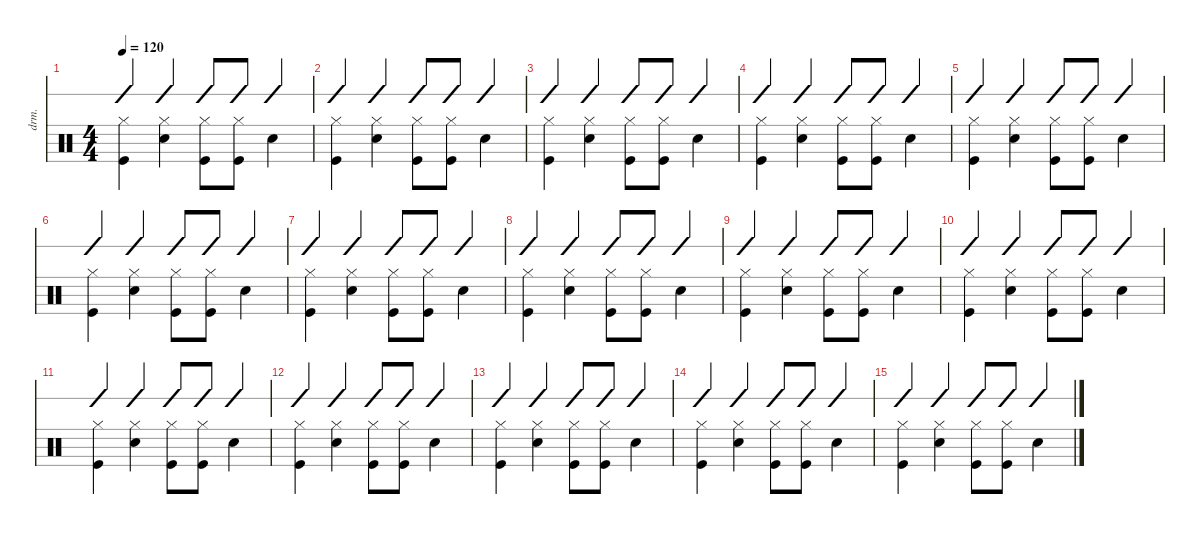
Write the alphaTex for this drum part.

\defaultSystemsLayout 4
\hideDynamics
\bracketExtendMode nobrackets
\otherSystemsTrackNameOrientation horizontal
\track ("Drumkit" "drm.") {instrument percussion}
\staff {score slash}
\articulation defaults
\ts (4 4)
\tempo 120
\clef neutral
\ks c
("Hi-Hat (closed)" "Kick (hit)").4{dy mf beam Down} ("Hi-Hat (closed)" "Snare (hit) 2").4{beam Down} ("Hi-Hat (closed)" "Kick (hit)").8{beam Down} ("Hi-Hat (closed)" "Kick (hit)").8{beam Down} "Snare (hit) 2".4{beam Down} |
("Hi-Hat (closed)" "Kick (hit)").4{beam Down} ("Hi-Hat (closed)" "Snare (hit) 2").4{beam Down} ("Hi-Hat (closed)" "Kick (hit)").8{beam Down} ("Hi-Hat (closed)" "Kick (hit)").8{beam Down} "Snare (hit) 2".4{beam Down} |
("Hi-Hat (closed)" "Kick (hit)").4{beam Down} ("Hi-Hat (closed)" "Snare (hit) 2").4{beam Down} ("Hi-Hat (closed)" "Kick (hit)").8{beam Down} ("Hi-Hat (closed)" "Kick (hit)").8{beam Down} "Snare (hit) 2".4{beam Down} |
("Hi-Hat (closed)" "Kick (hit)").4{beam Down} ("Hi-Hat (closed)" "Snare (hit) 2").4{beam Down} ("Hi-Hat (closed)" "Kick (hit)").8{beam Down} ("Hi-Hat (closed)" "Kick (hit)").8{beam Down} "Snare (hit) 2".4{beam Down} |
("Hi-Hat (closed)" "Kick (hit)").4{beam Down} ("Hi-Hat (closed)" "Snare (hit) 2").4{beam Down} ("Hi-Hat (closed)" "Kick (hit)").8{beam Down} ("Hi-Hat (closed)" "Kick (hit)").8{beam Down} "Snare (hit) 2".4{beam Down} |
("Hi-Hat (closed)" "Kick (hit)").4{beam Down} ("Hi-Hat (closed)" "Snare (hit) 2").4{beam Down} ("Hi-Hat (closed)" "Kick (hit)").8{beam Down} ("Hi-Hat (closed)" "Kick (hit)").8{beam Down} "Snare (hit) 2".4{beam Down} |
("Hi-Hat (closed)" "Kick (hit)").4{beam Down} ("Hi-Hat (closed)" "Snare (hit) 2").4{beam Down} ("Hi-Hat (closed)" "Kick (hit)").8{beam Down} ("Hi-Hat (closed)" "Kick (hit)").8{beam Down} "Snare (hit) 2".4{beam Down} |
("Hi-Hat (closed)" "Kick (hit)").4{beam Down} ("Hi-Hat (closed)" "Snare (hit) 2").4{beam Down} ("Hi-Hat (closed)" "Kick (hit)").8{beam Down} ("Hi-Hat (closed)" "Kick (hit)").8{beam Down} "Snare (hit) 2".4{beam Down} |
("Hi-Hat (closed)" "Kick (hit)").4{beam Down} ("Hi-Hat (closed)" "Snare (hit) 2").4{beam Down} ("Hi-Hat (closed)" "Kick (hit)").8{beam Down} ("Hi-Hat (closed)" "Kick (hit)").8{beam Down} "Snare (hit) 2".4{beam Down} |
("Hi-Hat (closed)" "Kick (hit)").4{beam Down} ("Hi-Hat (closed)" "Snare (hit) 2").4{beam Down} ("Hi-Hat (closed)" "Kick (hit)").8{beam Down} ("Hi-Hat (closed)" "Kick (hit)").8{beam Down} "Snare (hit) 2".4{beam Down} |
("Hi-Hat (closed)" "Kick (hit)").4{beam Down} ("Hi-Hat (closed)" "Snare (hit) 2").4{beam Down} ("Hi-Hat (closed)" "Kick (hit)").8{beam Down} ("Hi-Hat (closed)" "Kick (hit)").8{beam Down} "Snare (hit) 2".4{beam Down} |
("Hi-Hat (closed)" "Kick (hit)").4{beam Down} ("Hi-Hat (closed)" "Snare (hit) 2").4{beam Down} ("Hi-Hat (closed)" "Kick (hit)").8{beam Down} ("Hi-Hat (closed)" "Kick (hit)").8{beam Down} "Snare (hit) 2".4{beam Down} |
("Hi-Hat (closed)" "Kick (hit)").4{beam Down} ("Hi-Hat (closed)" "Snare (hit) 2").4{beam Down} ("Hi-Hat (closed)" "Kick (hit)").8{beam Down} ("Hi-Hat (closed)" "Kick (hit)").8{beam Down} "Snare (hit) 2".4{beam Down} |
("Hi-Hat (closed)" "Kick (hit)").4{beam Down} ("Hi-Hat (closed)" "Snare (hit) 2").4{beam Down} ("Hi-Hat (closed)" "Kick (hit)").8{beam Down} ("Hi-Hat (closed)" "Kick (hit)").8{beam Down} "Snare (hit) 2".4{beam Down} |
("Hi-Hat (closed)" "Kick (hit)").4{beam Down} ("Hi-Hat (closed)" "Snare (hit) 2").4{beam Down} ("Hi-Hat (closed)" "Kick (hit)").8{beam Down} ("Hi-Hat (closed)" "Kick (hit)").8{beam Down} "Snare (hit) 2".4{beam Down}
